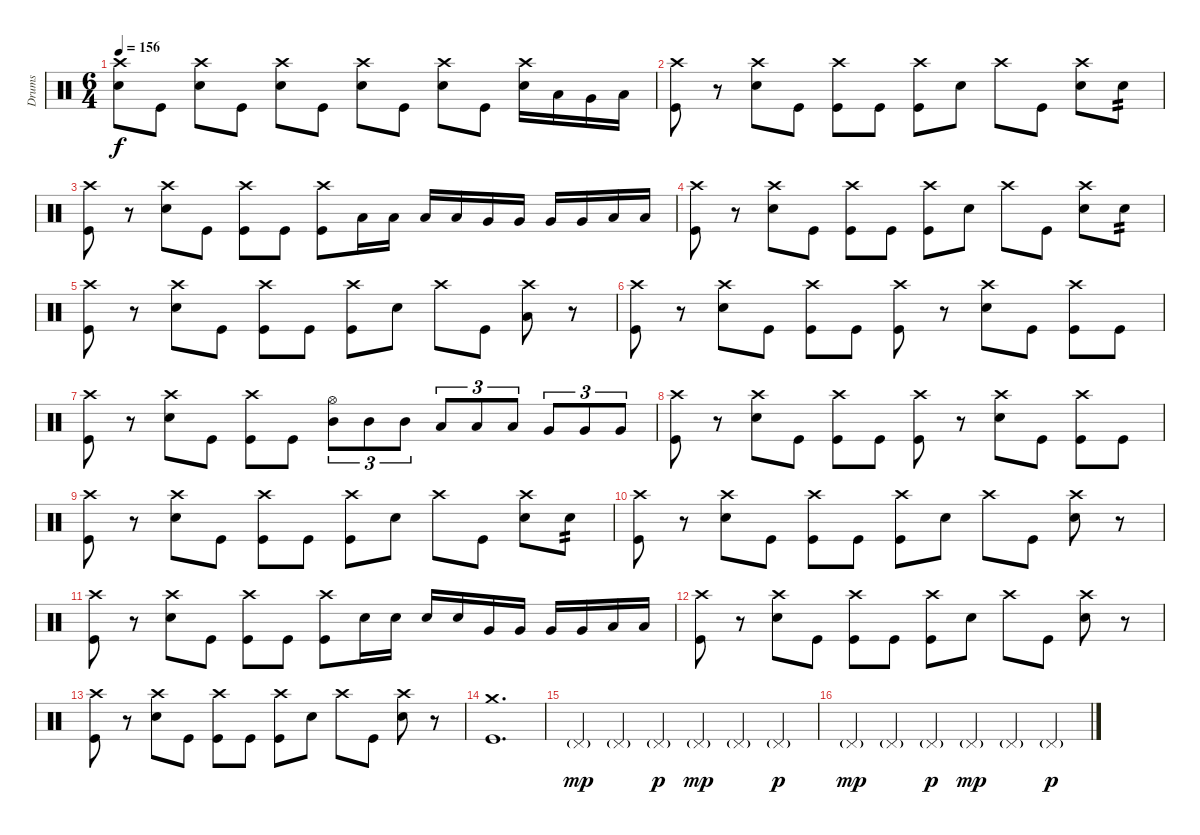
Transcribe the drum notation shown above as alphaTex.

\track ("Drums" "Drums") {instrument percussion}
\staff {score}
\articulation defaults
\ts (6 4)
\tempo 156
\clef neutral
\ks c
("Crash high (hit)" "Electric Snare (hit)").8{dy f} "Kick (hit)".8 ("Crash high (hit)" "Electric Snare (hit)").8 "Kick (hit)".8 ("Crash high (hit)" "Electric Snare (hit)").8 "Kick (hit)".8 ("Crash high (hit)" "Electric Snare (hit)").8 "Kick (hit)".8 ("Crash high (hit)" "Electric Snare (hit)").8 "Kick (hit)".8 ("Crash high (hit)" "Electric Snare (hit)").16 "Low Tom (hit)".16 "Very Low Tom (hit)".16 "Low Floor Tom (hit)".16 |
("Crash high (hit)" "Kick (hit)").8 r.8 ("Crash high (hit)" "Electric Snare (hit)").8 "Kick (hit)".8 ("Crash high (hit)" "Kick (hit)").8 "Kick (hit)".8 ("Crash high (hit)" "Kick (hit)").8 "Electric Snare (hit)".8 "Crash high (hit)".8 "Kick (hit)".8 ("Crash high (hit)" "Electric Snare (hit)").8 "Electric Snare (hit)".8{tp 2} |
("Crash high (hit)" "Kick (hit)").8 r.8 ("Crash high (hit)" "Electric Snare (hit)").8 "Kick (hit)".8 ("Crash high (hit)" "Kick (hit)").8 "Kick (hit)".8 ("Crash high (hit)" "Kick (hit)").8 "Low Tom (hit)".16 "Low Tom (hit)".16 "Low Tom (hit)".16 "Low Tom (hit)".16 "Very Low Tom (hit)".16 "Very Low Tom (hit)".16 "Very Low Tom (hit)".16 "Very Low Tom (hit)".16 "Low Floor Tom (hit)".16 "Low Floor Tom (hit)".16 |
("Crash high (hit)" "Kick (hit)").8 r.8 ("Crash high (hit)" "Electric Snare (hit)").8 "Kick (hit)".8 ("Crash high (hit)" "Kick (hit)").8 "Kick (hit)".8 ("Crash high (hit)" "Kick (hit)").8 "Electric Snare (hit)".8 "Crash high (hit)".8 "Kick (hit)".8 ("Crash high (hit)" "Electric Snare (hit)").8 "Electric Snare (hit)".8{tp 2} |
("Crash high (hit)" "Kick (hit)").8 r.8 ("Crash high (hit)" "Electric Snare (hit)").8 "Kick (hit)".8 ("Crash high (hit)" "Kick (hit)").8 "Kick (hit)".8 ("Crash high (hit)" "Kick (hit)").8 "Electric Snare (hit)".8 "Crash high (hit)".8 "Kick (hit)".8 ("Crash high (hit)" "Low Floor Tom (hit)").8 r.8 |
("Crash high (hit)" "Kick (hit)").8 r.8 ("Crash high (hit)" "Electric Snare (hit)").8 "Kick (hit)".8 ("Crash high (hit)" "Kick (hit)").8 "Kick (hit)".8 ("Crash high (hit)" "Kick (hit)").8 r.8 ("Crash high (hit)" "Electric Snare (hit)").8 "Kick (hit)".8 ("Crash high (hit)" "Kick (hit)").8 "Kick (hit)".8 |
("Crash high (hit)" "Kick (hit)").8 r.8 ("Crash high (hit)" "Electric Snare (hit)").8 "Kick (hit)".8 ("Crash high (hit)" "Kick (hit)").8 "Kick (hit)".8 ("Hi-Hat (open)" "Mid Tom (hit)").8{tu (3 2)} "Mid Tom (hit)".8{tu (3 2)} "Mid Tom (hit)".8{tu (3 2)} "Low Tom (hit)".8{tu (3 2)} "Low Tom (hit)".8{tu (3 2)} "Low Tom (hit)".8{tu (3 2)} "Very Low Tom (hit)".8{tu (3 2)} "Very Low Tom (hit)".8{tu (3 2)} "Very Low Tom (hit)".8{tu (3 2)} |
("Crash high (hit)" "Kick (hit)").8 r.8 ("Crash high (hit)" "Electric Snare (hit)").8 "Kick (hit)".8 ("Crash high (hit)" "Kick (hit)").8 "Kick (hit)".8 ("Crash high (hit)" "Kick (hit)").8 r.8 ("Crash high (hit)" "Electric Snare (hit)").8 "Kick (hit)".8 ("Crash high (hit)" "Kick (hit)").8 "Kick (hit)".8 |
("Crash high (hit)" "Kick (hit)").8 r.8 ("Crash high (hit)" "Electric Snare (hit)").8 "Kick (hit)".8 ("Crash high (hit)" "Kick (hit)").8 "Kick (hit)".8 ("Crash high (hit)" "Kick (hit)").8 "Electric Snare (hit)".8 "Crash high (hit)".8 "Kick (hit)".8 ("Crash high (hit)" "Electric Snare (hit)").8 "Electric Snare (hit)".8{tp 2} |
("Crash high (hit)" "Kick (hit)").8 r.8 ("Crash high (hit)" "Electric Snare (hit)").8 "Kick (hit)".8 ("Crash high (hit)" "Kick (hit)").8 "Kick (hit)".8 ("Crash high (hit)" "Kick (hit)").8 "Electric Snare (hit)".8 "Crash high (hit)".8 "Kick (hit)".8 ("Crash high (hit)" "Electric Snare (hit)").8 r.8 |
("Crash high (hit)" "Kick (hit)").8 r.8 ("Crash high (hit)" "Electric Snare (hit)").8 "Kick (hit)".8 ("Crash high (hit)" "Kick (hit)").8 "Kick (hit)".8 ("Crash high (hit)" "Kick (hit)").8 "Electric Snare (hit)".16 "Electric Snare (hit)".16 "Electric Snare (hit)".16 "Electric Snare (hit)".16 "Very Low Tom (hit)".16 "Very Low Tom (hit)".16 "Very Low Tom (hit)".16 "Very Low Tom (hit)".16 "Low Floor Tom (hit)".16 "Low Floor Tom (hit)".16 |
("Crash high (hit)" "Kick (hit)").8 r.8 ("Crash high (hit)" "Electric Snare (hit)").8 "Kick (hit)".8 ("Crash high (hit)" "Kick (hit)").8 "Kick (hit)".8 ("Crash high (hit)" "Kick (hit)").8 "Electric Snare (hit)".8 "Crash high (hit)".8 "Kick (hit)".8 ("Crash high (hit)" "Electric Snare (hit)").8 r.8 |
("Crash high (hit)" "Kick (hit)").8 r.8 ("Crash high (hit)" "Electric Snare (hit)").8 "Kick (hit)".8 ("Crash high (hit)" "Kick (hit)").8 "Kick (hit)".8 ("Crash high (hit)" "Kick (hit)").8 "Electric Snare (hit)".8 "Crash high (hit)".8 "Kick (hit)".8 ("Crash high (hit)" "Electric Snare (hit)").8 r.8 |
("Crash medium (hit)" "Kick (hit)").1{d} |
"Pedal Hi-Hat (hit)"{g}.4{dy mp} "Pedal Hi-Hat (hit)"{g}.4 "Pedal Hi-Hat (hit)"{g}.4{dy p} "Pedal Hi-Hat (hit)"{g}.4{dy mp} "Pedal Hi-Hat (hit)"{g}.4 "Pedal Hi-Hat (hit)"{g}.4{dy p} |
"Pedal Hi-Hat (hit)"{g}.4{dy mp} "Pedal Hi-Hat (hit)"{g}.4 "Pedal Hi-Hat (hit)"{g}.4{dy p} "Pedal Hi-Hat (hit)"{g}.4{dy mp} "Pedal Hi-Hat (hit)"{g}.4 "Pedal Hi-Hat (hit)"{g}.4{dy p}
